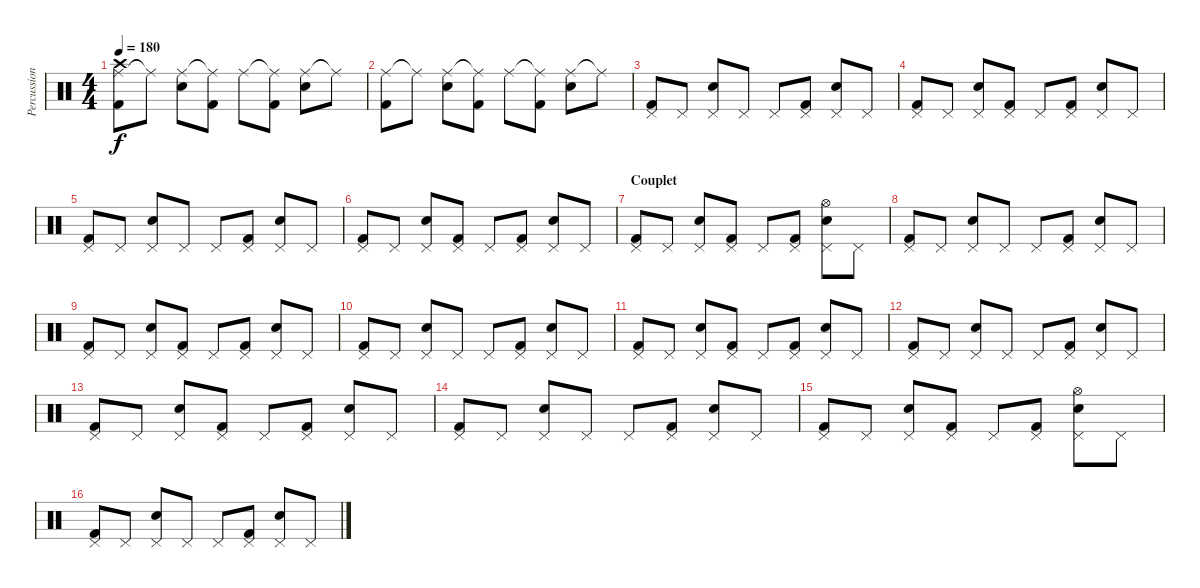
\track ("Percussions" "Percussion") {instrument percussion}
\staff {score}
\articulation defaults
\ts (4 4)
\tempo 180
\clef neutral
\ks c
("Ride (middle)" "Crash high (hit)" "Kick (hit) 2").8{dy f} "Ride (middle)"{t}.8 ("Ride (middle)" "Electric Snare (hit)").8 ("Ride (middle)"{t} "Kick (hit) 2").8 "Ride (middle)".8 ("Ride (middle)"{t} "Kick (hit) 2").8 ("Ride (middle)" "Electric Snare (hit)").8 "Ride (middle)"{t}.8 |
("Ride (middle)" "Kick (hit) 2").8 "Ride (middle)"{t}.8 ("Ride (middle)" "Electric Snare (hit)").8 ("Ride (middle)"{t} "Kick (hit) 2").8 "Ride (middle)".8 ("Ride (middle)"{t} "Kick (hit) 2").8 ("Ride (middle)" "Electric Snare (hit)").8 "Ride (middle)"{t}.8 |
("Pedal Hi-Hat (hit)" "Kick (hit) 2").8 "Pedal Hi-Hat (hit)".8 ("Pedal Hi-Hat (hit)" "Electric Snare (hit)").8 "Pedal Hi-Hat (hit)".8 "Pedal Hi-Hat (hit)".8 ("Pedal Hi-Hat (hit)" "Kick (hit) 2").8 ("Pedal Hi-Hat (hit)" "Electric Snare (hit)").8 "Pedal Hi-Hat (hit)".8 |
("Pedal Hi-Hat (hit)" "Kick (hit) 2").8 "Pedal Hi-Hat (hit)".8 ("Pedal Hi-Hat (hit)" "Electric Snare (hit)").8 ("Pedal Hi-Hat (hit)" "Kick (hit) 2").8 "Pedal Hi-Hat (hit)".8 ("Pedal Hi-Hat (hit)" "Kick (hit) 2").8 ("Pedal Hi-Hat (hit)" "Electric Snare (hit)").8 "Pedal Hi-Hat (hit)".8 |
("Pedal Hi-Hat (hit)" "Kick (hit) 2").8 "Pedal Hi-Hat (hit)".8 ("Pedal Hi-Hat (hit)" "Electric Snare (hit)").8 "Pedal Hi-Hat (hit)".8 "Pedal Hi-Hat (hit)".8 ("Pedal Hi-Hat (hit)" "Kick (hit) 2").8 ("Pedal Hi-Hat (hit)" "Electric Snare (hit)").8 "Pedal Hi-Hat (hit)".8 |
("Pedal Hi-Hat (hit)" "Kick (hit) 2").8 "Pedal Hi-Hat (hit)".8 ("Pedal Hi-Hat (hit)" "Electric Snare (hit)").8 ("Pedal Hi-Hat (hit)" "Kick (hit) 2").8 "Pedal Hi-Hat (hit)".8 ("Pedal Hi-Hat (hit)" "Kick (hit) 2").8 ("Pedal Hi-Hat (hit)" "Electric Snare (hit)").8 "Pedal Hi-Hat (hit)".8 |
\section ("" "Couplet")
("Pedal Hi-Hat (hit)" "Kick (hit) 2").8 "Pedal Hi-Hat (hit)".8 ("Pedal Hi-Hat (hit)" "Electric Snare (hit)").8 ("Pedal Hi-Hat (hit)" "Kick (hit) 2").8 "Pedal Hi-Hat (hit)".8 ("Pedal Hi-Hat (hit)" "Kick (hit) 2").8 ("Pedal Hi-Hat (hit)" "Hi-Hat (open)" "Electric Snare (hit)").8 "Pedal Hi-Hat (hit)".8 |
("Pedal Hi-Hat (hit)" "Kick (hit) 2").8 "Pedal Hi-Hat (hit)".8 ("Pedal Hi-Hat (hit)" "Electric Snare (hit)").8 "Pedal Hi-Hat (hit)".8 "Pedal Hi-Hat (hit)".8 ("Pedal Hi-Hat (hit)" "Kick (hit) 2").8 ("Pedal Hi-Hat (hit)" "Electric Snare (hit)").8 "Pedal Hi-Hat (hit)".8 |
("Pedal Hi-Hat (hit)" "Kick (hit) 2").8 "Pedal Hi-Hat (hit)".8 ("Pedal Hi-Hat (hit)" "Electric Snare (hit)").8 ("Pedal Hi-Hat (hit)" "Kick (hit) 2").8 "Pedal Hi-Hat (hit)".8 ("Pedal Hi-Hat (hit)" "Kick (hit) 2").8 ("Pedal Hi-Hat (hit)" "Electric Snare (hit)").8 "Pedal Hi-Hat (hit)".8 |
("Pedal Hi-Hat (hit)" "Kick (hit) 2").8 "Pedal Hi-Hat (hit)".8 ("Pedal Hi-Hat (hit)" "Electric Snare (hit)").8 "Pedal Hi-Hat (hit)".8 "Pedal Hi-Hat (hit)".8 ("Pedal Hi-Hat (hit)" "Kick (hit) 2").8 ("Pedal Hi-Hat (hit)" "Electric Snare (hit)").8 "Pedal Hi-Hat (hit)".8 |
("Pedal Hi-Hat (hit)" "Kick (hit) 2").8 "Pedal Hi-Hat (hit)".8 ("Pedal Hi-Hat (hit)" "Electric Snare (hit)").8 ("Pedal Hi-Hat (hit)" "Kick (hit) 2").8 "Pedal Hi-Hat (hit)".8 ("Pedal Hi-Hat (hit)" "Kick (hit) 2").8 ("Pedal Hi-Hat (hit)" "Electric Snare (hit)").8 "Pedal Hi-Hat (hit)".8 |
("Pedal Hi-Hat (hit)" "Kick (hit) 2").8 "Pedal Hi-Hat (hit)".8 ("Pedal Hi-Hat (hit)" "Electric Snare (hit)").8 "Pedal Hi-Hat (hit)".8 "Pedal Hi-Hat (hit)".8 ("Pedal Hi-Hat (hit)" "Kick (hit) 2").8 ("Pedal Hi-Hat (hit)" "Electric Snare (hit)").8 "Pedal Hi-Hat (hit)".8 |
("Pedal Hi-Hat (hit)" "Kick (hit) 2").8 "Pedal Hi-Hat (hit)".8 ("Pedal Hi-Hat (hit)" "Electric Snare (hit)").8 ("Pedal Hi-Hat (hit)" "Kick (hit) 2").8 "Pedal Hi-Hat (hit)".8 ("Pedal Hi-Hat (hit)" "Kick (hit) 2").8 ("Pedal Hi-Hat (hit)" "Electric Snare (hit)").8 "Pedal Hi-Hat (hit)".8 |
("Pedal Hi-Hat (hit)" "Kick (hit) 2").8 "Pedal Hi-Hat (hit)".8 ("Pedal Hi-Hat (hit)" "Electric Snare (hit)").8 "Pedal Hi-Hat (hit)".8 "Pedal Hi-Hat (hit)".8 ("Pedal Hi-Hat (hit)" "Kick (hit) 2").8 ("Pedal Hi-Hat (hit)" "Electric Snare (hit)").8 "Pedal Hi-Hat (hit)".8 |
("Pedal Hi-Hat (hit)" "Kick (hit) 2").8 "Pedal Hi-Hat (hit)".8 ("Pedal Hi-Hat (hit)" "Electric Snare (hit)").8 ("Pedal Hi-Hat (hit)" "Kick (hit) 2").8 "Pedal Hi-Hat (hit)".8 ("Pedal Hi-Hat (hit)" "Kick (hit) 2").8 ("Pedal Hi-Hat (hit)" "Hi-Hat (open)" "Electric Snare (hit)").8 "Pedal Hi-Hat (hit)".8 |
("Pedal Hi-Hat (hit)" "Kick (hit) 2").8 "Pedal Hi-Hat (hit)".8 ("Pedal Hi-Hat (hit)" "Electric Snare (hit)").8 "Pedal Hi-Hat (hit)".8 "Pedal Hi-Hat (hit)".8 ("Pedal Hi-Hat (hit)" "Kick (hit) 2").8 ("Pedal Hi-Hat (hit)" "Electric Snare (hit)").8 "Pedal Hi-Hat (hit)".8
